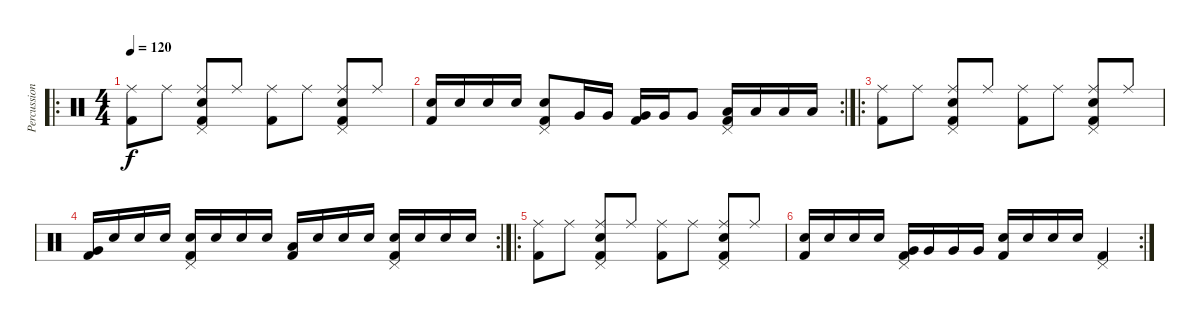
\track ("Percussion" "Percussion") {instrument percussion}
\staff {score}
\articulation defaults
\ro
\ts (4 4)
\tempo 120
\clef neutral
\ks c
("Ride (middle)" "Kick (hit) 2").8{dy f} "Ride (middle)".8 ("Ride (middle)" "Electric Snare (hit)" "Kick (hit) 2" "Pedal Hi-Hat (hit)").8 "Ride (middle)".8 ("Ride (middle)" "Kick (hit) 2").8 "Ride (middle)".8 ("Ride (middle)" "Electric Snare (hit)" "Kick (hit) 2" "Pedal Hi-Hat (hit)").8 "Ride (middle)".8 |
\rc 2
("Electric Snare (hit)" "Kick (hit) 2").16 "Electric Snare (hit)".16 "Electric Snare (hit)".16 "Electric Snare (hit)".16 ("Electric Snare (hit)" "Kick (hit) 2" "Pedal Hi-Hat (hit)").8 "Very Low Tom (hit)".16 "Very Low Tom (hit)".16 ("Very Low Tom (hit)" "Kick (hit) 2").16 "Very Low Tom (hit)".16 "Very Low Tom (hit)".8 ("Low Floor Tom (hit)" "Kick (hit) 2" "Pedal Hi-Hat (hit)").16 "Low Floor Tom (hit)".16 "Low Floor Tom (hit)".16 "Low Floor Tom (hit)".16 |
\ro
("Ride (middle)" "Kick (hit) 2").8 "Ride (middle)".8 ("Ride (middle)" "Electric Snare (hit)" "Kick (hit) 2" "Pedal Hi-Hat (hit)").8 "Ride (middle)".8 ("Ride (middle)" "Kick (hit) 2").8 "Ride (middle)".8 ("Ride (middle)" "Electric Snare (hit)" "Kick (hit) 2" "Pedal Hi-Hat (hit)").8 "Ride (middle)".8 |
\rc 2
("Very Low Tom (hit)" "Kick (hit) 2").16 "Electric Snare (hit)".16 "Electric Snare (hit)".16 "Electric Snare (hit)".16 ("Electric Snare (hit)" "Kick (hit) 2" "Pedal Hi-Hat (hit)").16 "Electric Snare (hit)".16 "Electric Snare (hit)".16 "Electric Snare (hit)".16 ("Low Floor Tom (hit)" "Kick (hit) 2").16 "Electric Snare (hit)".16 "Electric Snare (hit)".16 "Electric Snare (hit)".16 ("Electric Snare (hit)" "Kick (hit) 2" "Pedal Hi-Hat (hit)").16 "Electric Snare (hit)".16 "Electric Snare (hit)".16 "Electric Snare (hit)".16 |
\ro
("Ride (middle)" "Kick (hit) 2").8 "Ride (middle)".8 ("Ride (middle)" "Electric Snare (hit)" "Kick (hit) 2" "Pedal Hi-Hat (hit)").8 "Ride (middle)".8 ("Ride (middle)" "Kick (hit) 2").8 "Ride (middle)".8 ("Ride (middle)" "Electric Snare (hit)" "Kick (hit) 2" "Pedal Hi-Hat (hit)").8 "Ride (middle)".8 |
\rc 2
("Electric Snare (hit)" "Kick (hit) 2").16 "Electric Snare (hit)".16 "Electric Snare (hit)".16 "Electric Snare (hit)".16 ("Very Low Tom (hit)" "Kick (hit) 2" "Pedal Hi-Hat (hit)").16 "Very Low Tom (hit)".16 "Very Low Tom (hit)".16 "Very Low Tom (hit)".16 ("Electric Snare (hit)" "Kick (hit) 2").16 "Electric Snare (hit)".16 "Electric Snare (hit)".16 "Electric Snare (hit)".16 ("Kick (hit) 2" "Pedal Hi-Hat (hit)").4
